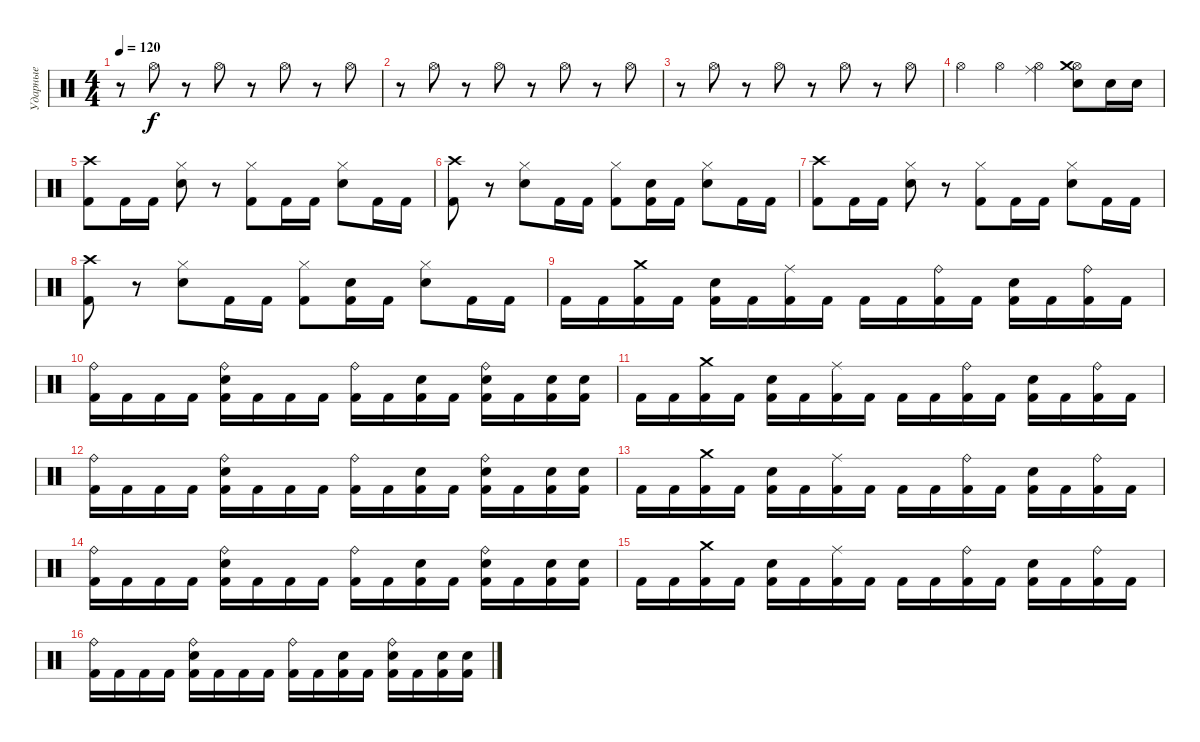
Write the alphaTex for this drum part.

\track ("Ударные" "Ударные") {instrument percussion}
\staff {score}
\articulation defaults
\ts (4 4)
\tempo 120
\clef neutral
\ks c
r.8{dy f} "Hi-Hat (open)".8 r.8 "Hi-Hat (open)".8 r.8 "Hi-Hat (open)".8 r.8 "Hi-Hat (open)".8 |
r.8 "Hi-Hat (open)".8 r.8 "Hi-Hat (open)".8 r.8 "Hi-Hat (open)".8 r.8 "Hi-Hat (open)".8 |
r.8 "Hi-Hat (open)".8 r.8 "Hi-Hat (open)".8 r.8 "Hi-Hat (open)".8 r.8 "Hi-Hat (open)".8 |
"Hi-Hat (open)".4 "Hi-Hat (open)".4 ("Hi-Hat (open)" "Ride (middle)").4 ("Hi-Hat (open)" "Electric Snare (hit)" "Crash medium (hit)").8 "Electric Snare (hit)".16 "Electric Snare (hit)".16 |
("Crash high (hit)" "Kick (hit) 2").8 "Kick (hit) 2".16 "Kick (hit) 2".16 ("Hi-Hat (closed)" "Electric Snare (hit)").8 r.8 ("Hi-Hat (closed)" "Kick (hit) 2").8 "Kick (hit) 2".16 "Kick (hit) 2".16 ("Hi-Hat (closed)" "Electric Snare (hit)").8 "Kick (hit) 2".16 "Kick (hit) 2".16 |
("Crash high (hit)" "Kick (hit) 2").8 r.8 ("Hi-Hat (closed)" "Electric Snare (hit)").8 "Kick (hit) 2".16 "Kick (hit) 2".16 ("Hi-Hat (closed)" "Kick (hit) 2").8 ("Electric Snare (hit)" "Kick (hit) 2").16 "Kick (hit) 2".16 ("Hi-Hat (closed)" "Electric Snare (hit)").8 "Kick (hit) 2".16 "Kick (hit) 2".16 |
("Crash high (hit)" "Kick (hit) 2").8 "Kick (hit) 2".16 "Kick (hit) 2".16 ("Hi-Hat (closed)" "Electric Snare (hit)").8 r.8 ("Hi-Hat (closed)" "Kick (hit) 2").8 "Kick (hit) 2".16 "Kick (hit) 2".16 ("Hi-Hat (closed)" "Electric Snare (hit)").8 "Kick (hit) 2".16 "Kick (hit) 2".16 |
("Crash high (hit)" "Kick (hit) 2").8 r.8 ("Hi-Hat (closed)" "Electric Snare (hit)").8 "Kick (hit) 2".16 "Kick (hit) 2".16 ("Hi-Hat (closed)" "Kick (hit) 2").8 ("Electric Snare (hit)" "Kick (hit) 2").16 "Kick (hit) 2".16 ("Hi-Hat (closed)" "Electric Snare (hit)").8 "Kick (hit) 2".16 "Kick (hit) 2".16 |
"Kick (hit) 2".16 "Kick (hit) 2".16 ("Crash medium (hit)" "Kick (hit) 2").16 "Kick (hit) 2".16 ("Electric Snare (hit)" "Kick (hit) 2").16 "Kick (hit) 2".16 ("Ride (middle)" "Kick (hit) 2").16 "Kick (hit) 2".16 "Kick (hit) 2".16 "Kick (hit) 2".16 ("Ride (bell)" "Kick (hit) 2").16 "Kick (hit) 2".16 ("Electric Snare (hit)" "Kick (hit) 2").16 "Kick (hit) 2".16 ("Ride (bell)" "Kick (hit) 2").16 "Kick (hit) 2".16 |
("Ride (bell)" "Kick (hit) 2").16 "Kick (hit) 2".16 "Kick (hit) 2".16 "Kick (hit) 2".16 ("Ride (bell)" "Electric Snare (hit)" "Kick (hit) 2").16 "Kick (hit) 2".16 "Kick (hit) 2".16 "Kick (hit) 2".16 ("Ride (bell)" "Kick (hit) 2").16 "Kick (hit) 2".16 ("Electric Snare (hit)" "Kick (hit) 2").16 "Kick (hit) 2".16 ("Ride (bell)" "Electric Snare (hit)" "Kick (hit) 2").16 "Kick (hit) 2".16 ("Electric Snare (hit)" "Kick (hit) 2").16 ("Electric Snare (hit)" "Kick (hit) 2").16 |
"Kick (hit) 2".16 "Kick (hit) 2".16 ("Crash medium (hit)" "Kick (hit) 2").16 "Kick (hit) 2".16 ("Electric Snare (hit)" "Kick (hit) 2").16 "Kick (hit) 2".16 ("Ride (middle)" "Kick (hit) 2").16 "Kick (hit) 2".16 "Kick (hit) 2".16 "Kick (hit) 2".16 ("Ride (bell)" "Kick (hit) 2").16 "Kick (hit) 2".16 ("Electric Snare (hit)" "Kick (hit) 2").16 "Kick (hit) 2".16 ("Ride (bell)" "Kick (hit) 2").16 "Kick (hit) 2".16 |
("Ride (bell)" "Kick (hit) 2").16 "Kick (hit) 2".16 "Kick (hit) 2".16 "Kick (hit) 2".16 ("Ride (bell)" "Electric Snare (hit)" "Kick (hit) 2").16 "Kick (hit) 2".16 "Kick (hit) 2".16 "Kick (hit) 2".16 ("Ride (bell)" "Kick (hit) 2").16 "Kick (hit) 2".16 ("Electric Snare (hit)" "Kick (hit) 2").16 "Kick (hit) 2".16 ("Ride (bell)" "Electric Snare (hit)" "Kick (hit) 2").16 "Kick (hit) 2".16 ("Electric Snare (hit)" "Kick (hit) 2").16 ("Electric Snare (hit)" "Kick (hit) 2").16 |
"Kick (hit) 2".16 "Kick (hit) 2".16 ("Crash medium (hit)" "Kick (hit) 2").16 "Kick (hit) 2".16 ("Electric Snare (hit)" "Kick (hit) 2").16 "Kick (hit) 2".16 ("Ride (middle)" "Kick (hit) 2").16 "Kick (hit) 2".16 "Kick (hit) 2".16 "Kick (hit) 2".16 ("Ride (bell)" "Kick (hit) 2").16 "Kick (hit) 2".16 ("Electric Snare (hit)" "Kick (hit) 2").16 "Kick (hit) 2".16 ("Ride (bell)" "Kick (hit) 2").16 "Kick (hit) 2".16 |
("Ride (bell)" "Kick (hit) 2").16 "Kick (hit) 2".16 "Kick (hit) 2".16 "Kick (hit) 2".16 ("Ride (bell)" "Electric Snare (hit)" "Kick (hit) 2").16 "Kick (hit) 2".16 "Kick (hit) 2".16 "Kick (hit) 2".16 ("Ride (bell)" "Kick (hit) 2").16 "Kick (hit) 2".16 ("Electric Snare (hit)" "Kick (hit) 2").16 "Kick (hit) 2".16 ("Ride (bell)" "Electric Snare (hit)" "Kick (hit) 2").16 "Kick (hit) 2".16 ("Electric Snare (hit)" "Kick (hit) 2").16 ("Electric Snare (hit)" "Kick (hit) 2").16 |
"Kick (hit) 2".16 "Kick (hit) 2".16 ("Crash medium (hit)" "Kick (hit) 2").16 "Kick (hit) 2".16 ("Electric Snare (hit)" "Kick (hit) 2").16 "Kick (hit) 2".16 ("Ride (middle)" "Kick (hit) 2").16 "Kick (hit) 2".16 "Kick (hit) 2".16 "Kick (hit) 2".16 ("Ride (bell)" "Kick (hit) 2").16 "Kick (hit) 2".16 ("Electric Snare (hit)" "Kick (hit) 2").16 "Kick (hit) 2".16 ("Ride (bell)" "Kick (hit) 2").16 "Kick (hit) 2".16 |
("Ride (bell)" "Kick (hit) 2").16 "Kick (hit) 2".16 "Kick (hit) 2".16 "Kick (hit) 2".16 ("Ride (bell)" "Electric Snare (hit)" "Kick (hit) 2").16 "Kick (hit) 2".16 "Kick (hit) 2".16 "Kick (hit) 2".16 ("Ride (bell)" "Kick (hit) 2").16 "Kick (hit) 2".16 ("Electric Snare (hit)" "Kick (hit) 2").16 "Kick (hit) 2".16 ("Ride (bell)" "Electric Snare (hit)" "Kick (hit) 2").16 "Kick (hit) 2".16 ("Electric Snare (hit)" "Kick (hit) 2").16 ("Electric Snare (hit)" "Kick (hit) 2").16
